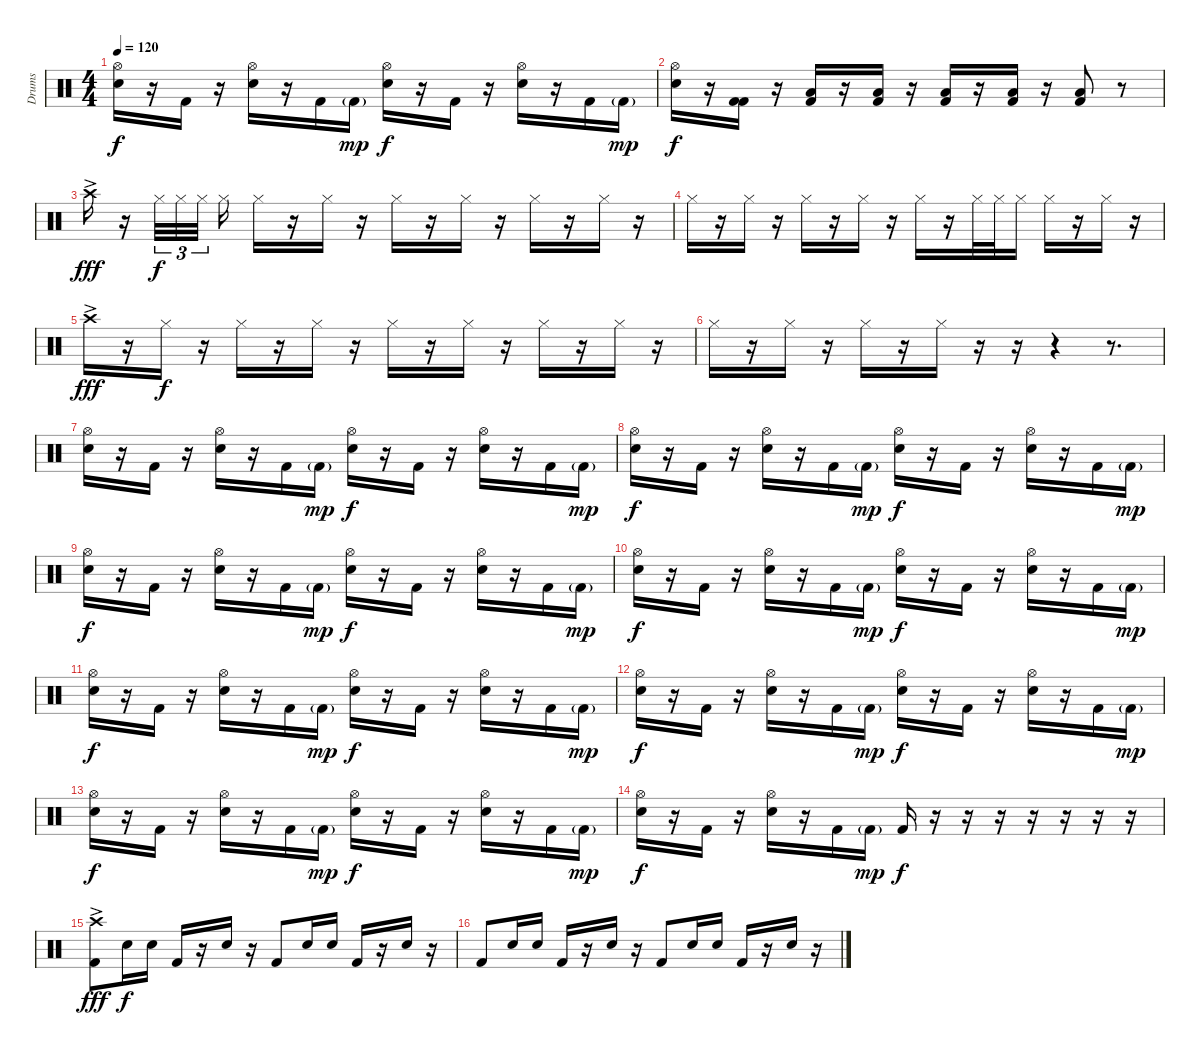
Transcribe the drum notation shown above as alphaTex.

\track ("Drums" "Drums") {instrument percussion}
\staff {score}
\articulation defaults
\ts (4 4)
\tempo 120
\clef neutral
\ks c
("Hi-Hat (open)" "Snare (hit) 2").16{dy f} r.16 "Kick (hit) 2".16 r.16 ("Hi-Hat (open)" "Snare (hit) 2").16 r.16 "Kick (hit) 2".16 "Kick (hit) 2"{g}.16{dy mp} ("Hi-Hat (open)" "Snare (hit) 2").16{dy f} r.16 "Kick (hit) 2".16 r.16 ("Hi-Hat (open)" "Snare (hit) 2").16 r.16 "Kick (hit) 2".16 "Kick (hit) 2"{g}.16{dy mp} |
("Hi-Hat (open)" "Snare (hit) 2").16{dy f} r.16 ("Kick (hit) 2" "Kick (hit) 2").16 r.16 ("Kick (hit) 2" "Low Tom (hit)").16 r.16 ("Kick (hit) 2" "Low Tom (hit)").16 r.16 ("Kick (hit) 2" "Low Tom (hit)").16 r.16 ("Kick (hit) 2" "Low Tom (hit)").16 r.16 ("Kick (hit) 2" "Low Tom (hit)").8 r.8 |
"Crash high (hit)"{ac}.16{dy fff} r.16 "Hi-Hat (closed)".32{tu (3 2) dy f} "Hi-Hat (closed)".32{tu (3 2)} "Hi-Hat (closed)".32{tu (3 2)} "Hi-Hat (closed)".16 "Hi-Hat (closed)".16 r.16 "Hi-Hat (closed)".16 r.16 "Hi-Hat (closed)".16 r.16 "Hi-Hat (closed)".16 r.16 "Hi-Hat (closed)".16 r.16 "Hi-Hat (closed)".16 r.16 |
"Hi-Hat (closed)".16 r.16 "Hi-Hat (closed)".16 r.16 "Hi-Hat (closed)".16 r.16 "Hi-Hat (closed)".16 r.16 "Hi-Hat (closed)".16 r.16 "Hi-Hat (closed)".32 "Hi-Hat (closed)".32 "Hi-Hat (closed)".16 "Hi-Hat (closed)".16 r.16 "Hi-Hat (closed)".16 r.16 |
"Crash high (hit)"{ac}.16{dy fff} r.16 "Hi-Hat (closed)".16{dy f} r.16 "Hi-Hat (closed)".16 r.16 "Hi-Hat (closed)".16 r.16 "Hi-Hat (closed)".16 r.16 "Hi-Hat (closed)".16 r.16 "Hi-Hat (closed)".16 r.16 "Hi-Hat (closed)".16 r.16 |
"Hi-Hat (closed)".16 r.16 "Hi-Hat (closed)".16 r.16 "Hi-Hat (closed)".16 r.16 "Hi-Hat (closed)".16 r.16 r.16 r.4 r.8{d} |
("Hi-Hat (open)" "Snare (hit) 2").16 r.16 "Kick (hit) 2".16 r.16 ("Hi-Hat (open)" "Snare (hit) 2").16 r.16 "Kick (hit) 2".16 "Kick (hit) 2"{g}.16{dy mp} ("Hi-Hat (open)" "Snare (hit) 2").16{dy f} r.16 "Kick (hit) 2".16 r.16 ("Hi-Hat (open)" "Snare (hit) 2").16 r.16 "Kick (hit) 2".16 "Kick (hit) 2"{g}.16{dy mp} |
("Hi-Hat (open)" "Snare (hit) 2").16{dy f} r.16 "Kick (hit) 2".16 r.16 ("Hi-Hat (open)" "Snare (hit) 2").16 r.16 "Kick (hit) 2".16 "Kick (hit) 2"{g}.16{dy mp} ("Hi-Hat (open)" "Snare (hit) 2").16{dy f} r.16 "Kick (hit) 2".16 r.16 ("Hi-Hat (open)" "Snare (hit) 2").16 r.16 "Kick (hit) 2".16 "Kick (hit) 2"{g}.16{dy mp} |
("Hi-Hat (open)" "Snare (hit) 2").16{dy f} r.16 "Kick (hit) 2".16 r.16 ("Hi-Hat (open)" "Snare (hit) 2").16 r.16 "Kick (hit) 2".16 "Kick (hit) 2"{g}.16{dy mp} ("Hi-Hat (open)" "Snare (hit) 2").16{dy f} r.16 "Kick (hit) 2".16 r.16 ("Hi-Hat (open)" "Snare (hit) 2").16 r.16 "Kick (hit) 2".16 "Kick (hit) 2"{g}.16{dy mp} |
("Hi-Hat (open)" "Snare (hit) 2").16{dy f} r.16 "Kick (hit) 2".16 r.16 ("Hi-Hat (open)" "Snare (hit) 2").16 r.16 "Kick (hit) 2".16 "Kick (hit) 2"{g}.16{dy mp} ("Hi-Hat (open)" "Snare (hit) 2").16{dy f} r.16 "Kick (hit) 2".16 r.16 ("Hi-Hat (open)" "Snare (hit) 2").16 r.16 "Kick (hit) 2".16 "Kick (hit) 2"{g}.16{dy mp} |
("Hi-Hat (open)" "Snare (hit) 2").16{dy f} r.16 "Kick (hit) 2".16 r.16 ("Hi-Hat (open)" "Snare (hit) 2").16 r.16 "Kick (hit) 2".16 "Kick (hit) 2"{g}.16{dy mp} ("Hi-Hat (open)" "Snare (hit) 2").16{dy f} r.16 "Kick (hit) 2".16 r.16 ("Hi-Hat (open)" "Snare (hit) 2").16 r.16 "Kick (hit) 2".16 "Kick (hit) 2"{g}.16{dy mp} |
("Hi-Hat (open)" "Snare (hit) 2").16{dy f} r.16 "Kick (hit) 2".16 r.16 ("Hi-Hat (open)" "Snare (hit) 2").16 r.16 "Kick (hit) 2".16 "Kick (hit) 2"{g}.16{dy mp} ("Hi-Hat (open)" "Snare (hit) 2").16{dy f} r.16 "Kick (hit) 2".16 r.16 ("Hi-Hat (open)" "Snare (hit) 2").16 r.16 "Kick (hit) 2".16 "Kick (hit) 2"{g}.16{dy mp} |
("Hi-Hat (open)" "Snare (hit) 2").16{dy f} r.16 "Kick (hit) 2".16 r.16 ("Hi-Hat (open)" "Snare (hit) 2").16 r.16 "Kick (hit) 2".16 "Kick (hit) 2"{g}.16{dy mp} ("Hi-Hat (open)" "Snare (hit) 2").16{dy f} r.16 "Kick (hit) 2".16 r.16 ("Hi-Hat (open)" "Snare (hit) 2").16 r.16 "Kick (hit) 2".16 "Kick (hit) 2"{g}.16{dy mp} |
("Hi-Hat (open)" "Snare (hit) 2").16{dy f} r.16 "Kick (hit) 2".16 r.16 ("Hi-Hat (open)" "Snare (hit) 2").16 r.16 "Kick (hit) 2".16 "Kick (hit) 2"{g}.16{dy mp} "Kick (hit) 2".16{dy f} r.16 r.16 r.16 r.16 r.16 r.16 r.16 |
("Crash high (hit)"{ac} "Kick (hit) 2").8{dy fff} "Snare (hit) 2".16{dy f} "Snare (hit) 2".16 "Kick (hit) 2".16 r.16 "Snare (hit) 2".16 r.16 "Kick (hit) 2".8 "Snare (hit) 2".16 "Snare (hit) 2".16 "Kick (hit) 2".16 r.16 "Snare (hit) 2".16 r.16 |
"Kick (hit) 2".8 "Snare (hit) 2".16 "Snare (hit) 2".16 "Kick (hit) 2".16 r.16 "Snare (hit) 2".16 r.16 "Kick (hit) 2".8 "Snare (hit) 2".16 "Snare (hit) 2".16 "Kick (hit) 2".16 r.16 "Snare (hit) 2".16 r.16
